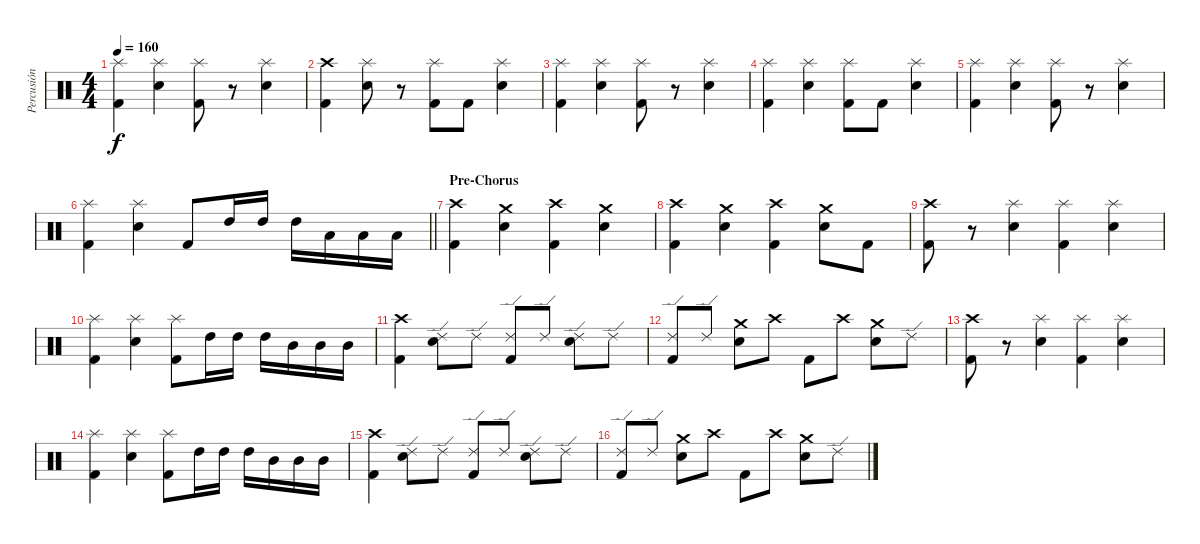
\track ("Percusión" "Percusión") {instrument percussion}
\staff {score}
\articulation defaults
\ts (4 4)
\tempo 160
\clef neutral
\ks c
("Splash (hit)" "Kick (hit) 2").4{dy f} ("Splash (hit)" "Electric Snare (hit)").4 ("Splash (hit)" "Kick (hit) 2").8 r.8 ("Splash (hit)" "Electric Snare (hit)").4 |
("Crash high (hit)" "Kick (hit) 2").4 ("Splash (hit)" "Electric Snare (hit)").8 r.8 ("Splash (hit)" "Kick (hit) 2").8 "Kick (hit) 2".8 ("Splash (hit)" "Electric Snare (hit)").4 |
("Splash (hit)" "Kick (hit) 2").4 ("Splash (hit)" "Electric Snare (hit)").4 ("Splash (hit)" "Kick (hit) 2").8 r.8 ("Splash (hit)" "Electric Snare (hit)").4 |
("Splash (hit)" "Kick (hit) 2").4 ("Splash (hit)" "Electric Snare (hit)").4 ("Splash (hit)" "Kick (hit) 2").8 "Kick (hit) 2".8 ("Splash (hit)" "Electric Snare (hit)").4 |
("Splash (hit)" "Kick (hit) 2").4 ("Splash (hit)" "Electric Snare (hit)").4 ("Splash (hit)" "Kick (hit) 2").8 r.8 ("Splash (hit)" "Electric Snare (hit)").4 |
\barLineRight lightlight
("Splash (hit)" "Kick (hit) 2").4 ("Splash (hit)" "Electric Snare (hit)").4 "Kick (hit) 2".8 "High Tom (hit)".16 "High Tom (hit)".16 "High Tom (hit)".16 "Low Tom (hit)".16 "Low Tom (hit)".16 "Low Tom (hit)".16 |
\section ("" "Pre-Chorus")
("Crash high (hit)" "Kick (hit) 2").4 ("Crash medium (hit)" "Electric Snare (hit)").4 ("Crash high (hit)" "Kick (hit) 2").4 ("Crash medium (hit)" "Electric Snare (hit)").4 |
("Crash high (hit)" "Kick (hit) 2").4 ("Crash medium (hit)" "Electric Snare (hit)").4 ("Crash high (hit)" "Kick (hit) 2").4 ("Crash medium (hit)" "Electric Snare (hit)").8 "Kick (hit) 2".8 |
("Crash high (hit)" "Kick (hit) 2").8 r.8 ("Splash (hit)" "Electric Snare (hit)").4 ("Splash (hit)" "Kick (hit) 2").4 ("Splash (hit)" "Electric Snare (hit)").4 |
("Splash (hit)" "Kick (hit) 2").4 ("Splash (hit)" "Electric Snare (hit)").4 ("Splash (hit)" "Kick (hit) 2").8 "High Tom (hit)".16 "High Tom (hit)".16 "High Tom (hit)".16 "Mid Tom (hit)".16 "Mid Tom (hit)".16 "Mid Tom (hit)".16 |
("Crash high (hit)" "Kick (hit) 2").4 ("Ride (edge) 2" "Electric Snare (hit)").8 "Ride (edge) 2".8 ("Ride (edge) 2" "Kick (hit) 2").8 "Ride (edge) 2".8 ("Ride (edge) 2" "Electric Snare (hit)").8 "Ride (edge) 2".8 |
("Ride (edge) 2" "Kick (hit) 2").8 "Ride (edge) 2".8 ("Crash medium (hit)" "Electric Snare (hit)").8 "Crash high (hit)".8 "Kick (hit) 2".8 "Crash high (hit)".8 ("Crash medium (hit)" "Electric Snare (hit)").8 "Ride (edge) 2".8 |
("Crash high (hit)" "Kick (hit) 2").8 r.8 ("Splash (hit)" "Electric Snare (hit)").4 ("Splash (hit)" "Kick (hit) 2").4 ("Splash (hit)" "Electric Snare (hit)").4 |
("Splash (hit)" "Kick (hit) 2").4 ("Splash (hit)" "Electric Snare (hit)").4 ("Splash (hit)" "Kick (hit) 2").8 "High Tom (hit)".16 "High Tom (hit)".16 "High Tom (hit)".16 "Mid Tom (hit)".16 "Mid Tom (hit)".16 "Mid Tom (hit)".16 |
("Crash high (hit)" "Kick (hit) 2").4 ("Ride (edge) 2" "Electric Snare (hit)").8 "Ride (edge) 2".8 ("Ride (edge) 2" "Kick (hit) 2").8 "Ride (edge) 2".8 ("Ride (edge) 2" "Electric Snare (hit)").8 "Ride (edge) 2".8 |
("Ride (edge) 2" "Kick (hit) 2").8 "Ride (edge) 2".8 ("Crash medium (hit)" "Electric Snare (hit)").8 "Crash high (hit)".8 "Kick (hit) 2".8 "Crash high (hit)".8 ("Crash medium (hit)" "Electric Snare (hit)").8 "Ride (edge) 2".8
